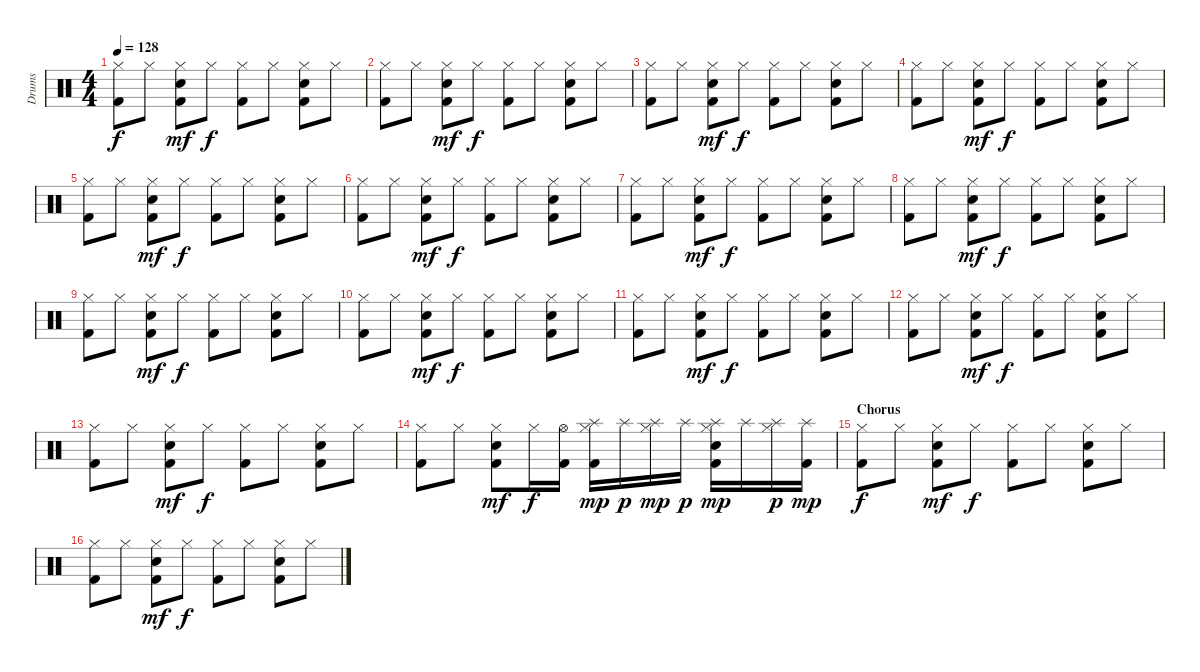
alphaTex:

\track ("Drums" "Drums") {instrument percussion}
\staff {score}
\articulation defaults
\ts (4 4)
\tempo 128
\clef neutral
\ks c
("Kick (hit) 2" "Hi-Hat (closed)").8{dy f} "Hi-Hat (closed)".8 ("Kick (hit) 2" "Snare (hit) 2" "Hi-Hat (closed)").8{dy mf} "Hi-Hat (closed)".8{dy f} ("Kick (hit) 2" "Hi-Hat (closed)").8 "Hi-Hat (closed)".8 ("Kick (hit) 2" "Snare (hit) 2" "Hi-Hat (closed)").8 "Hi-Hat (closed)".8 |
("Kick (hit) 2" "Hi-Hat (closed)").8 "Hi-Hat (closed)".8 ("Kick (hit) 2" "Snare (hit) 2" "Hi-Hat (closed)").8{dy mf} "Hi-Hat (closed)".8{dy f} ("Kick (hit) 2" "Hi-Hat (closed)").8 "Hi-Hat (closed)".8 ("Kick (hit) 2" "Snare (hit) 2" "Hi-Hat (closed)").8 "Hi-Hat (closed)".8 |
("Kick (hit) 2" "Hi-Hat (closed)").8 "Hi-Hat (closed)".8 ("Kick (hit) 2" "Snare (hit) 2" "Hi-Hat (closed)").8{dy mf} "Hi-Hat (closed)".8{dy f} ("Kick (hit) 2" "Hi-Hat (closed)").8 "Hi-Hat (closed)".8 ("Kick (hit) 2" "Snare (hit) 2" "Hi-Hat (closed)").8 "Hi-Hat (closed)".8 |
("Kick (hit) 2" "Hi-Hat (closed)").8 "Hi-Hat (closed)".8 ("Kick (hit) 2" "Snare (hit) 2" "Hi-Hat (closed)").8{dy mf} "Hi-Hat (closed)".8{dy f} ("Kick (hit) 2" "Hi-Hat (closed)").8 "Hi-Hat (closed)".8 ("Kick (hit) 2" "Snare (hit) 2" "Hi-Hat (closed)").8 "Hi-Hat (closed)".8 |
("Kick (hit) 2" "Hi-Hat (closed)").8 "Hi-Hat (closed)".8 ("Kick (hit) 2" "Snare (hit) 2" "Hi-Hat (closed)").8{dy mf} "Hi-Hat (closed)".8{dy f} ("Kick (hit) 2" "Hi-Hat (closed)").8 "Hi-Hat (closed)".8 ("Kick (hit) 2" "Snare (hit) 2" "Hi-Hat (closed)").8 "Hi-Hat (closed)".8 |
("Kick (hit) 2" "Hi-Hat (closed)").8 "Hi-Hat (closed)".8 ("Kick (hit) 2" "Snare (hit) 2" "Hi-Hat (closed)").8{dy mf} "Hi-Hat (closed)".8{dy f} ("Kick (hit) 2" "Hi-Hat (closed)").8 "Hi-Hat (closed)".8 ("Kick (hit) 2" "Snare (hit) 2" "Hi-Hat (closed)").8 "Hi-Hat (closed)".8 |
("Kick (hit) 2" "Hi-Hat (closed)").8 "Hi-Hat (closed)".8 ("Kick (hit) 2" "Snare (hit) 2" "Hi-Hat (closed)").8{dy mf} "Hi-Hat (closed)".8{dy f} ("Kick (hit) 2" "Hi-Hat (closed)").8 "Hi-Hat (closed)".8 ("Kick (hit) 2" "Snare (hit) 2" "Hi-Hat (closed)").8 "Hi-Hat (closed)".8 |
("Kick (hit) 2" "Hi-Hat (closed)").8 "Hi-Hat (closed)".8 ("Kick (hit) 2" "Snare (hit) 2" "Hi-Hat (closed)").8{dy mf} "Hi-Hat (closed)".8{dy f} ("Kick (hit) 2" "Hi-Hat (closed)").8 "Hi-Hat (closed)".8 ("Kick (hit) 2" "Snare (hit) 2" "Hi-Hat (closed)").8 "Hi-Hat (closed)".8 |
("Kick (hit) 2" "Hi-Hat (closed)").8 "Hi-Hat (closed)".8 ("Kick (hit) 2" "Snare (hit) 2" "Hi-Hat (closed)").8{dy mf} "Hi-Hat (closed)".8{dy f} ("Kick (hit) 2" "Hi-Hat (closed)").8 "Hi-Hat (closed)".8 ("Kick (hit) 2" "Snare (hit) 2" "Hi-Hat (closed)").8 "Hi-Hat (closed)".8 |
("Kick (hit) 2" "Hi-Hat (closed)").8 "Hi-Hat (closed)".8 ("Kick (hit) 2" "Snare (hit) 2" "Hi-Hat (closed)").8{dy mf} "Hi-Hat (closed)".8{dy f} ("Kick (hit) 2" "Hi-Hat (closed)").8 "Hi-Hat (closed)".8 ("Kick (hit) 2" "Snare (hit) 2" "Hi-Hat (closed)").8 "Hi-Hat (closed)".8 |
("Kick (hit) 2" "Hi-Hat (closed)").8 "Hi-Hat (closed)".8 ("Kick (hit) 2" "Snare (hit) 2" "Hi-Hat (closed)").8{dy mf} "Hi-Hat (closed)".8{dy f} ("Kick (hit) 2" "Hi-Hat (closed)").8 "Hi-Hat (closed)".8 ("Kick (hit) 2" "Snare (hit) 2" "Hi-Hat (closed)").8 "Hi-Hat (closed)".8 |
("Kick (hit) 2" "Hi-Hat (closed)").8 "Hi-Hat (closed)".8 ("Kick (hit) 2" "Snare (hit) 2" "Hi-Hat (closed)").8{dy mf} "Hi-Hat (closed)".8{dy f} ("Kick (hit) 2" "Hi-Hat (closed)").8 "Hi-Hat (closed)".8 ("Kick (hit) 2" "Snare (hit) 2" "Hi-Hat (closed)").8 "Hi-Hat (closed)".8 |
("Kick (hit) 2" "Hi-Hat (closed)").8 "Hi-Hat (closed)".8 ("Kick (hit) 2" "Snare (hit) 2" "Hi-Hat (closed)").8{dy mf} "Hi-Hat (closed)".8{dy f} ("Kick (hit) 2" "Hi-Hat (closed)").8 "Hi-Hat (closed)".8 ("Kick (hit) 2" "Snare (hit) 2" "Hi-Hat (closed)").8 "Hi-Hat (closed)".8 |
("Kick (hit) 2" "Hi-Hat (closed)").8 "Hi-Hat (closed)".8 ("Kick (hit) 2" "Snare (hit) 2" "Hi-Hat (closed)").8{dy mf} "Hi-Hat (closed)".16{dy f} ("Kick (hit) 2" "Hi-Hat (open)").16 ("Splash (hit)" "Kick (hit) 2" "Hi-Hat (closed)").16{dy mp} "Splash (hit)".16{dy p} ("Splash (hit)" "Hi-Hat (closed)").16{dy mp} "Splash (hit)".16{dy p} ("Splash (hit)" "Kick (hit) 2" "Snare (hit) 2" "Hi-Hat (closed)").16{dy mp} "Splash (hit)".16 ("Splash (hit)" "Hi-Hat (closed)").16{dy p} ("Splash (hit)" "Kick (hit) 2").16{dy mp} |
\section ("" "Chorus")
("Kick (hit) 2" "Hi-Hat (closed)").8{dy f} "Hi-Hat (closed)".8 ("Kick (hit) 2" "Snare (hit) 2" "Hi-Hat (closed)").8{dy mf} "Hi-Hat (closed)".8{dy f} ("Kick (hit) 2" "Hi-Hat (closed)").8 "Hi-Hat (closed)".8 ("Kick (hit) 2" "Snare (hit) 2" "Hi-Hat (closed)").8 "Hi-Hat (closed)".8 |
("Kick (hit) 2" "Hi-Hat (closed)").8 "Hi-Hat (closed)".8 ("Kick (hit) 2" "Snare (hit) 2" "Hi-Hat (closed)").8{dy mf} "Hi-Hat (closed)".8{dy f} ("Kick (hit) 2" "Hi-Hat (closed)").8 "Hi-Hat (closed)".8 ("Kick (hit) 2" "Snare (hit) 2" "Hi-Hat (closed)").8 "Hi-Hat (closed)".8
